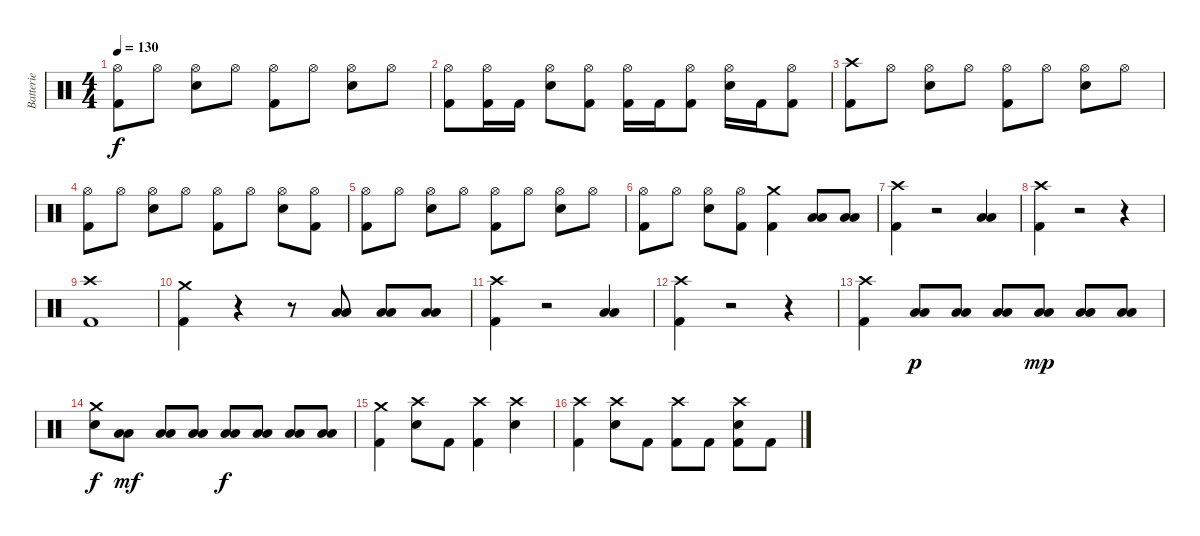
\track ("Batterie" "Batterie") {instrument percussion}
\staff {score}
\articulation defaults
\ts (4 4)
\tempo 130
\clef neutral
\ks c
("Hi-Hat (open)" "Kick (hit) 2").8{dy f} "Hi-Hat (open)".8 ("Hi-Hat (open)" "Electric Snare (hit)").8 "Hi-Hat (open)".8 ("Hi-Hat (open)" "Kick (hit) 2").8 "Hi-Hat (open)".8 ("Hi-Hat (open)" "Electric Snare (hit)").8 "Hi-Hat (open)".8 |
("Hi-Hat (open)" "Kick (hit) 2").8 ("Hi-Hat (open)" "Kick (hit) 2").16 "Kick (hit) 2".16 ("Hi-Hat (open)" "Electric Snare (hit)").8 ("Hi-Hat (open)" "Kick (hit) 2").8 ("Hi-Hat (open)" "Kick (hit) 2").16 "Kick (hit) 2".16 ("Hi-Hat (open)" "Kick (hit) 2").8 ("Hi-Hat (open)" "Electric Snare (hit)").16 "Kick (hit) 2".16 ("Hi-Hat (open)" "Kick (hit) 2").8 |
("Crash high (hit)" "Kick (hit) 2").8 "Hi-Hat (open)".8 ("Hi-Hat (open)" "Electric Snare (hit)").8 "Hi-Hat (open)".8 ("Hi-Hat (open)" "Kick (hit) 2").8 "Hi-Hat (open)".8 ("Hi-Hat (open)" "Electric Snare (hit)").8 "Hi-Hat (open)".8 |
("Hi-Hat (open)" "Kick (hit) 2").8 "Hi-Hat (open)".8 ("Hi-Hat (open)" "Electric Snare (hit)").8 "Hi-Hat (open)".8 ("Hi-Hat (open)" "Kick (hit) 2").8 "Hi-Hat (open)".8 ("Hi-Hat (open)" "Electric Snare (hit)").8 ("Hi-Hat (open)" "Kick (hit) 2").8 |
("Hi-Hat (open)" "Kick (hit) 2").8 "Hi-Hat (open)".8 ("Hi-Hat (open)" "Electric Snare (hit)").8 "Hi-Hat (open)".8 ("Hi-Hat (open)" "Kick (hit) 2").8 "Hi-Hat (open)".8 ("Hi-Hat (open)" "Electric Snare (hit)").8 "Hi-Hat (open)".8 |
("Hi-Hat (open)" "Kick (hit) 2").8 "Hi-Hat (open)".8 ("Hi-Hat (open)" "Electric Snare (hit)").8 ("Hi-Hat (open)" "Kick (hit) 2").8 ("Crash medium (hit)" "Kick (hit) 2").4 ("Low Tom (hit)" "Low Floor Tom (hit)").8{bu 60} ("Low Tom (hit)" "Low Floor Tom (hit)").8{bu 60} |
("Crash high (hit)" "Kick (hit) 2").4 r.2 ("Low Tom (hit)" "Low Floor Tom (hit)").4{bu 60} |
("Crash high (hit)" "Kick (hit) 2").4 r.2 r.4 |
("Crash high (hit)" "Kick (hit) 2").1 |
("Crash medium (hit)" "Kick (hit) 2").4 r.4 r.8 ("Low Tom (hit)" "Low Floor Tom (hit)").8{bu 60} ("Low Tom (hit)" "Low Floor Tom (hit)").8{bu 60} ("Low Tom (hit)" "Low Floor Tom (hit)").8{bu 60} |
("Crash high (hit)" "Kick (hit) 2").4 r.2 ("Low Tom (hit)" "Low Floor Tom (hit)").4{bu 60} |
("Crash high (hit)" "Kick (hit) 2").4 r.2 r.4 |
("Crash high (hit)" "Kick (hit) 2").4 ("Low Tom (hit)" "Low Floor Tom (hit)").8{bu 60 dy p} ("Low Tom (hit)" "Low Floor Tom (hit)").8{bu 60} ("Low Tom (hit)" "Low Floor Tom (hit)").8{bu 60} ("Low Tom (hit)" "Low Floor Tom (hit)").8{bu 60 dy mp} ("Low Tom (hit)" "Low Floor Tom (hit)").8{bu 60} ("Low Tom (hit)" "Low Floor Tom (hit)").8{bu 60} |
("Crash medium (hit)" "Electric Snare (hit)").8{dy f} ("Low Tom (hit)" "Low Floor Tom (hit)").8{bu 60 dy mf} ("Low Tom (hit)" "Low Floor Tom (hit)").8{bu 60} ("Low Tom (hit)" "Low Floor Tom (hit)").8{bu 60} ("Low Tom (hit)" "Low Floor Tom (hit)").8{bu 60 dy f} ("Low Tom (hit)" "Low Floor Tom (hit)").8{bu 60} ("Low Tom (hit)" "Low Floor Tom (hit)").8{bu 60} ("Low Tom (hit)" "Low Floor Tom (hit)").8{bu 60} |
("Crash medium (hit)" "Kick (hit) 2").4 ("Crash high (hit)" "Electric Snare (hit)").8 "Kick (hit) 2".8 ("Crash high (hit)" "Kick (hit) 2").4 ("Crash high (hit)" "Electric Snare (hit)").4 |
("Crash high (hit)" "Kick (hit) 2").4 ("Crash high (hit)" "Electric Snare (hit)").8 "Kick (hit) 2".8 ("Crash high (hit)" "Kick (hit) 2").8 "Kick (hit) 2".8 ("Crash high (hit)" "Electric Snare (hit)" "Kick (hit) 2").8 "Kick (hit) 2".8
